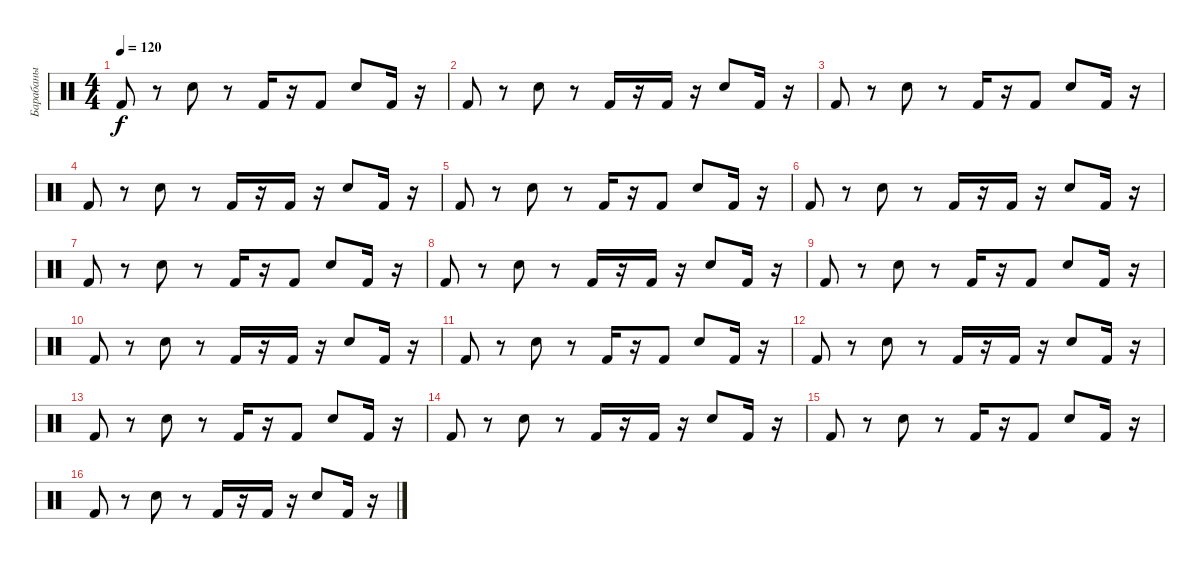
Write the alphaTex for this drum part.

\track ("Барабаны" "Барабаны") {instrument percussion}
\staff {score}
\articulation defaults
\ts (4 4)
\tempo 120
\clef neutral
\ks c "Kick (hit) 2".8{dy f}
r.8 "Electric Snare (hit)".8 r.8 "Kick (hit) 2".16 r.16 "Kick (hit) 2".8 "Electric Snare (hit)".8 "Kick (hit) 2".16 r.16 |
"Kick (hit) 2".8 r.8 "Electric Snare (hit)".8 r.8 "Kick (hit) 2".16 r.16 "Kick (hit) 2".16 r.16 "Electric Snare (hit)".8 "Kick (hit) 2".16 r.16 |
"Kick (hit) 2".8 r.8 "Electric Snare (hit)".8 r.8 "Kick (hit) 2".16 r.16 "Kick (hit) 2".8 "Electric Snare (hit)".8 "Kick (hit) 2".16 r.16 |
"Kick (hit) 2".8 r.8 "Electric Snare (hit)".8 r.8 "Kick (hit) 2".16 r.16 "Kick (hit) 2".16 r.16 "Electric Snare (hit)".8 "Kick (hit) 2".16 r.16 |
"Kick (hit) 2".8 r.8 "Electric Snare (hit)".8 r.8 "Kick (hit) 2".16 r.16 "Kick (hit) 2".8 "Electric Snare (hit)".8 "Kick (hit) 2".16 r.16 |
"Kick (hit) 2".8 r.8 "Electric Snare (hit)".8 r.8 "Kick (hit) 2".16 r.16 "Kick (hit) 2".16 r.16 "Electric Snare (hit)".8 "Kick (hit) 2".16 r.16 |
"Kick (hit) 2".8 r.8 "Electric Snare (hit)".8 r.8 "Kick (hit) 2".16 r.16 "Kick (hit) 2".8 "Electric Snare (hit)".8 "Kick (hit) 2".16 r.16 |
"Kick (hit) 2".8 r.8 "Electric Snare (hit)".8 r.8 "Kick (hit) 2".16 r.16 "Kick (hit) 2".16 r.16 "Electric Snare (hit)".8 "Kick (hit) 2".16 r.16 |
"Kick (hit) 2".8 r.8 "Electric Snare (hit)".8 r.8 "Kick (hit) 2".16 r.16 "Kick (hit) 2".8 "Electric Snare (hit)".8 "Kick (hit) 2".16 r.16 |
"Kick (hit) 2".8 r.8 "Electric Snare (hit)".8 r.8 "Kick (hit) 2".16 r.16 "Kick (hit) 2".16 r.16 "Electric Snare (hit)".8 "Kick (hit) 2".16 r.16 |
"Kick (hit) 2".8 r.8 "Electric Snare (hit)".8 r.8 "Kick (hit) 2".16 r.16 "Kick (hit) 2".8 "Electric Snare (hit)".8 "Kick (hit) 2".16 r.16 |
"Kick (hit) 2".8 r.8 "Electric Snare (hit)".8 r.8 "Kick (hit) 2".16 r.16 "Kick (hit) 2".16 r.16 "Electric Snare (hit)".8 "Kick (hit) 2".16 r.16 |
"Kick (hit) 2".8 r.8 "Electric Snare (hit)".8 r.8 "Kick (hit) 2".16 r.16 "Kick (hit) 2".8 "Electric Snare (hit)".8 "Kick (hit) 2".16 r.16 |
"Kick (hit) 2".8 r.8 "Electric Snare (hit)".8 r.8 "Kick (hit) 2".16 r.16 "Kick (hit) 2".16 r.16 "Electric Snare (hit)".8 "Kick (hit) 2".16 r.16 |
"Kick (hit) 2".8 r.8 "Electric Snare (hit)".8 r.8 "Kick (hit) 2".16 r.16 "Kick (hit) 2".8 "Electric Snare (hit)".8 "Kick (hit) 2".16 r.16 |
"Kick (hit) 2".8 r.8 "Electric Snare (hit)".8 r.8 "Kick (hit) 2".16 r.16 "Kick (hit) 2".16 r.16 "Electric Snare (hit)".8 "Kick (hit) 2".16 r.16
